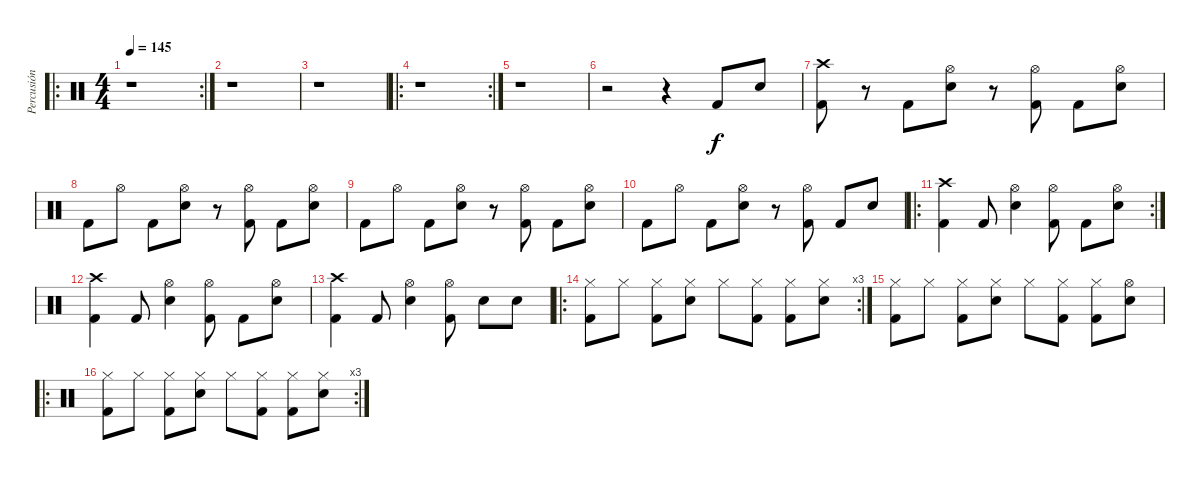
\track ("Percusión" "Percusión") {instrument percussion}
\staff {score}
\articulation defaults
\ro
\rc 2
\ts (4 4)
\tempo 145
\clef neutral
\ks c
r.1{dy f} |
r.1 |
r.1 |
\ro
\rc 2
r.1 |
r.1 |
r.2 r.4 "Kick (hit) 2".8 "Electric Snare (hit)".8 |
("Crash high (hit)" "Kick (hit) 2").8 r.8 "Kick (hit) 2".8 ("Hi-Hat (open)" "Electric Snare (hit)").8 r.8 ("Hi-Hat (open)" "Kick (hit) 2").8 "Kick (hit) 2".8 ("Hi-Hat (open)" "Electric Snare (hit)").8 |
"Kick (hit) 2".8 "Hi-Hat (open)".8 "Kick (hit) 2".8 ("Hi-Hat (open)" "Electric Snare (hit)").8 r.8 ("Hi-Hat (open)" "Kick (hit) 2").8 "Kick (hit) 2".8 ("Hi-Hat (open)" "Electric Snare (hit)").8 |
"Kick (hit) 2".8 "Hi-Hat (open)".8 "Kick (hit) 2".8 ("Hi-Hat (open)" "Electric Snare (hit)").8 r.8 ("Hi-Hat (open)" "Kick (hit) 2").8 "Kick (hit) 2".8 ("Hi-Hat (open)" "Electric Snare (hit)").8 |
"Kick (hit) 2".8 "Hi-Hat (open)".8 "Kick (hit) 2".8 ("Hi-Hat (open)" "Electric Snare (hit)").8 r.8 ("Hi-Hat (open)" "Kick (hit) 2").8 "Kick (hit) 2".8 "Electric Snare (hit)".8 |
\ro
\rc 2
("Crash high (hit)" "Kick (hit) 2").4 "Kick (hit) 2".8 ("Hi-Hat (open)" "Electric Snare (hit)").4 ("Hi-Hat (open)" "Kick (hit) 2").8 "Kick (hit) 2".8 ("Hi-Hat (open)" "Electric Snare (hit)").8 |
("Crash high (hit)" "Kick (hit) 2").4 "Kick (hit) 2".8 ("Hi-Hat (open)" "Electric Snare (hit)").4 ("Hi-Hat (open)" "Kick (hit) 2").8 "Kick (hit) 2".8 ("Hi-Hat (open)" "Electric Snare (hit)").8 |
("Crash high (hit)" "Kick (hit) 2").4 "Kick (hit) 2".8 ("Hi-Hat (open)" "Electric Snare (hit)").4 ("Hi-Hat (open)" "Kick (hit) 2").8 "Electric Snare (hit)".8 "Electric Snare (hit)".8 |
\ro
\rc 3
("Hi-Hat (closed)" "Kick (hit) 2").8 "Hi-Hat (closed)".8 ("Hi-Hat (closed)" "Kick (hit) 2").8 ("Hi-Hat (closed)" "Electric Snare (hit)").8 "Hi-Hat (closed)".8 ("Hi-Hat (closed)" "Kick (hit) 2").8 ("Hi-Hat (closed)" "Kick (hit) 2").8 ("Hi-Hat (closed)" "Electric Snare (hit)").8 |
("Hi-Hat (closed)" "Kick (hit) 2").8 "Hi-Hat (closed)".8 ("Hi-Hat (closed)" "Kick (hit) 2").8 ("Hi-Hat (closed)" "Electric Snare (hit)").8 "Hi-Hat (closed)".8 ("Hi-Hat (closed)" "Kick (hit) 2").8 ("Hi-Hat (closed)" "Kick (hit) 2").8 ("Hi-Hat (open)" "Electric Snare (hit)").8 |
\ro
\rc 3
("Hi-Hat (closed)" "Kick (hit) 2").8 "Hi-Hat (closed)".8 ("Hi-Hat (closed)" "Kick (hit) 2").8 ("Hi-Hat (closed)" "Electric Snare (hit)").8 "Hi-Hat (closed)".8 ("Hi-Hat (closed)" "Kick (hit) 2").8 ("Hi-Hat (closed)" "Kick (hit) 2").8 ("Hi-Hat (closed)" "Electric Snare (hit)").8
